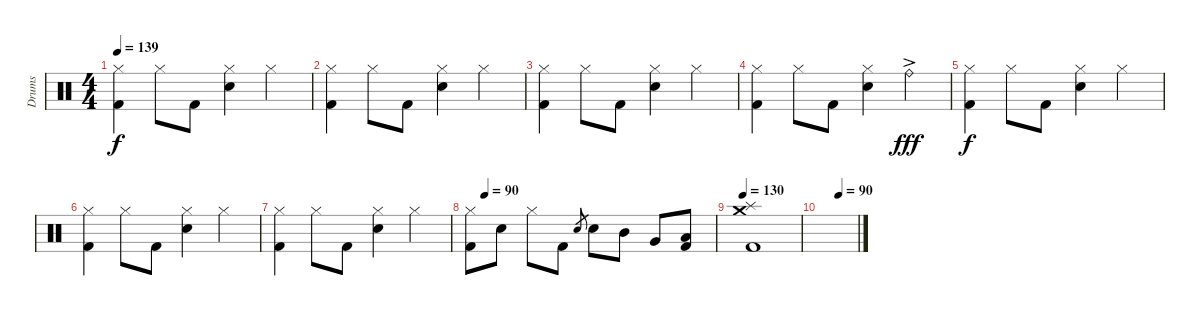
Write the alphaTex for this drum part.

\track ("Drums" "Drums") {instrument percussion}
\staff {score}
\articulation defaults
\ts (4 4)
\tempo 139
\clef neutral
\ks c
("Hi-Hat (closed)" "Kick (hit) 2").4{dy f} "Hi-Hat (closed)".8 "Kick (hit) 2".8 ("Hi-Hat (closed)" "Electric Snare (hit)").4 "Hi-Hat (closed)".4 |
("Hi-Hat (closed)" "Kick (hit) 2").4 "Hi-Hat (closed)".8 "Kick (hit) 2".8 ("Hi-Hat (closed)" "Electric Snare (hit)").4 "Hi-Hat (closed)".4 |
("Hi-Hat (closed)" "Kick (hit) 2").4 "Hi-Hat (closed)".8 "Kick (hit) 2".8 ("Hi-Hat (closed)" "Electric Snare (hit)").4 "Hi-Hat (closed)".4 |
("Hi-Hat (closed)" "Kick (hit) 2").4 "Hi-Hat (closed)".8 "Kick (hit) 2".8 ("Hi-Hat (closed)" "Electric Snare (hit)").4 "Ride (bell)"{ac}.4{dy fff} |
("Hi-Hat (closed)" "Kick (hit) 2").4{dy f} "Hi-Hat (closed)".8 "Kick (hit) 2".8 ("Hi-Hat (closed)" "Electric Snare (hit)").4 "Hi-Hat (closed)".4 |
("Hi-Hat (closed)" "Kick (hit) 2").4 "Hi-Hat (closed)".8 "Kick (hit) 2".8 ("Hi-Hat (closed)" "Electric Snare (hit)").4 "Hi-Hat (closed)".4 |
("Hi-Hat (closed)" "Kick (hit) 2").4 "Hi-Hat (closed)".8 "Kick (hit) 2".8 ("Hi-Hat (closed)" "Electric Snare (hit)").4 "Hi-Hat (closed)".4 |
\tempo (90 0.0625)
("Hi-Hat (closed)" "Kick (hit) 2").8 "Electric Snare (hit)".8 "Hi-Hat (closed)".8 "Kick (hit) 2".8 "Electric Snare (hit)".8{gr} "Electric Snare (hit)".8 "Mid Tom (hit)".8 "Very Low Tom (hit)".8 ("Low Floor Tom (hit)" "Kick (hit) 2").8 |
\tempo 130
("Crash medium (hit)" "Splash (hit)" "Kick (hit) 2").1 |
\tempo (90 0.5)
